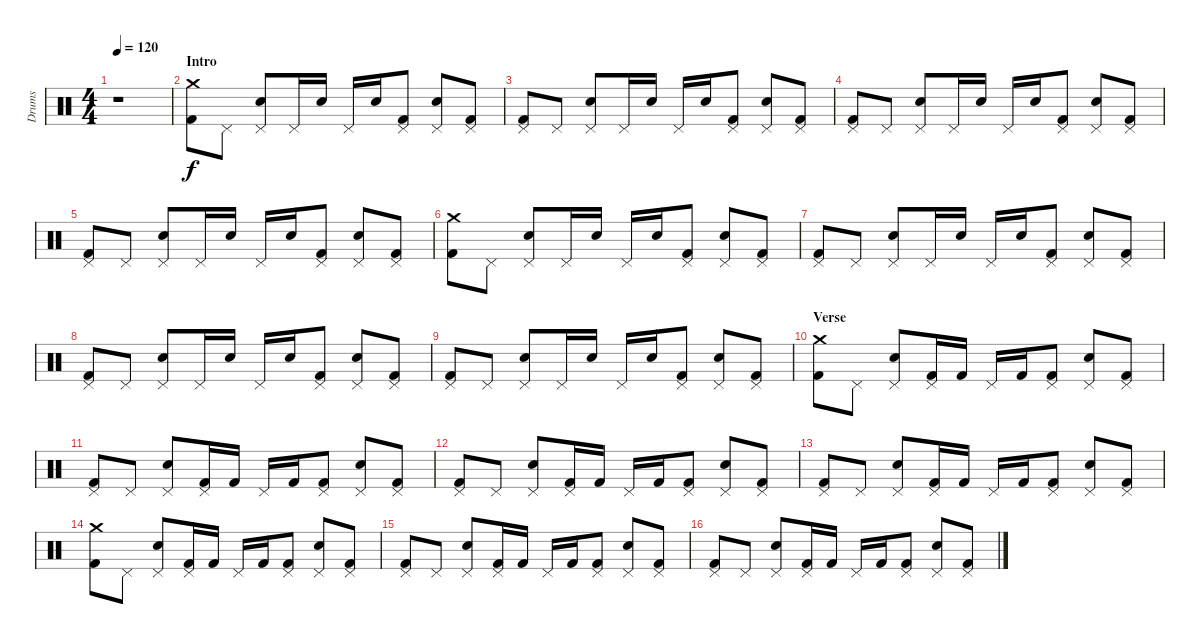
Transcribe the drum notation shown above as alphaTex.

\track ("Drums" "Drums") {instrument percussion}
\staff {score}
\articulation defaults
\ts (4 4)
\tempo 120
\clef neutral
\ks c
r.1{dy f} |
\section ("" "Intro")
("Crash medium (hit)" "Kick (hit) 2").8 "Pedal Hi-Hat (hit)".8 ("Pedal Hi-Hat (hit)" "Electric Snare (hit)").8 "Pedal Hi-Hat (hit)".16 "Electric Snare (hit)".16 "Pedal Hi-Hat (hit)".16 "Electric Snare (hit)".16 ("Pedal Hi-Hat (hit)" "Kick (hit) 2").8 ("Pedal Hi-Hat (hit)" "Electric Snare (hit)").8 ("Pedal Hi-Hat (hit)" "Kick (hit) 2").8 |
("Pedal Hi-Hat (hit)" "Kick (hit) 2").8 "Pedal Hi-Hat (hit)".8 ("Pedal Hi-Hat (hit)" "Electric Snare (hit)").8 "Pedal Hi-Hat (hit)".16 "Electric Snare (hit)".16 "Pedal Hi-Hat (hit)".16 "Electric Snare (hit)".16 ("Pedal Hi-Hat (hit)" "Kick (hit) 2").8 ("Pedal Hi-Hat (hit)" "Electric Snare (hit)").8 ("Pedal Hi-Hat (hit)" "Kick (hit) 2").8 |
("Pedal Hi-Hat (hit)" "Kick (hit) 2").8 "Pedal Hi-Hat (hit)".8 ("Pedal Hi-Hat (hit)" "Electric Snare (hit)").8 "Pedal Hi-Hat (hit)".16 "Electric Snare (hit)".16 "Pedal Hi-Hat (hit)".16 "Electric Snare (hit)".16 ("Pedal Hi-Hat (hit)" "Kick (hit) 2").8 ("Pedal Hi-Hat (hit)" "Electric Snare (hit)").8 ("Pedal Hi-Hat (hit)" "Kick (hit) 2").8 |
("Pedal Hi-Hat (hit)" "Kick (hit) 2").8 "Pedal Hi-Hat (hit)".8 ("Pedal Hi-Hat (hit)" "Electric Snare (hit)").8 "Pedal Hi-Hat (hit)".16 "Electric Snare (hit)".16 "Pedal Hi-Hat (hit)".16 "Electric Snare (hit)".16 ("Pedal Hi-Hat (hit)" "Kick (hit) 2").8 ("Pedal Hi-Hat (hit)" "Electric Snare (hit)").8 ("Pedal Hi-Hat (hit)" "Kick (hit) 2").8 |
("Crash medium (hit)" "Kick (hit) 2").8 "Pedal Hi-Hat (hit)".8 ("Pedal Hi-Hat (hit)" "Electric Snare (hit)").8 "Pedal Hi-Hat (hit)".16 "Electric Snare (hit)".16 "Pedal Hi-Hat (hit)".16 "Electric Snare (hit)".16 ("Pedal Hi-Hat (hit)" "Kick (hit) 2").8 ("Pedal Hi-Hat (hit)" "Electric Snare (hit)").8 ("Pedal Hi-Hat (hit)" "Kick (hit) 2").8 |
("Pedal Hi-Hat (hit)" "Kick (hit) 2").8 "Pedal Hi-Hat (hit)".8 ("Pedal Hi-Hat (hit)" "Electric Snare (hit)").8 "Pedal Hi-Hat (hit)".16 "Electric Snare (hit)".16 "Pedal Hi-Hat (hit)".16 "Electric Snare (hit)".16 ("Pedal Hi-Hat (hit)" "Kick (hit) 2").8 ("Pedal Hi-Hat (hit)" "Electric Snare (hit)").8 ("Pedal Hi-Hat (hit)" "Kick (hit) 2").8 |
("Pedal Hi-Hat (hit)" "Kick (hit) 2").8 "Pedal Hi-Hat (hit)".8 ("Pedal Hi-Hat (hit)" "Electric Snare (hit)").8 "Pedal Hi-Hat (hit)".16 "Electric Snare (hit)".16 "Pedal Hi-Hat (hit)".16 "Electric Snare (hit)".16 ("Pedal Hi-Hat (hit)" "Kick (hit) 2").8 ("Pedal Hi-Hat (hit)" "Electric Snare (hit)").8 ("Pedal Hi-Hat (hit)" "Kick (hit) 2").8 |
("Pedal Hi-Hat (hit)" "Kick (hit) 2").8 "Pedal Hi-Hat (hit)".8 ("Pedal Hi-Hat (hit)" "Electric Snare (hit)").8 "Pedal Hi-Hat (hit)".16 "Electric Snare (hit)".16 "Pedal Hi-Hat (hit)".16 "Electric Snare (hit)".16 ("Pedal Hi-Hat (hit)" "Kick (hit) 2").8 ("Pedal Hi-Hat (hit)" "Electric Snare (hit)").8 ("Pedal Hi-Hat (hit)" "Kick (hit) 2").8 |
\section ("" "Verse")
("Crash medium (hit)" "Kick (hit) 2").8 "Pedal Hi-Hat (hit)".8 ("Pedal Hi-Hat (hit)" "Electric Snare (hit)").8 ("Pedal Hi-Hat (hit)" "Kick (hit) 2").16 "Kick (hit) 2".16 "Pedal Hi-Hat (hit)".16 "Kick (hit) 2".16 ("Pedal Hi-Hat (hit)" "Kick (hit) 2").8 ("Pedal Hi-Hat (hit)" "Electric Snare (hit)").8 ("Pedal Hi-Hat (hit)" "Kick (hit) 2").8 |
("Pedal Hi-Hat (hit)" "Kick (hit) 2").8 "Pedal Hi-Hat (hit)".8 ("Pedal Hi-Hat (hit)" "Electric Snare (hit)").8 ("Pedal Hi-Hat (hit)" "Kick (hit) 2").16 "Kick (hit) 2".16 "Pedal Hi-Hat (hit)".16 "Kick (hit) 2".16 ("Pedal Hi-Hat (hit)" "Kick (hit) 2").8 ("Pedal Hi-Hat (hit)" "Electric Snare (hit)").8 ("Pedal Hi-Hat (hit)" "Kick (hit) 2").8 |
("Pedal Hi-Hat (hit)" "Kick (hit) 2").8 "Pedal Hi-Hat (hit)".8 ("Pedal Hi-Hat (hit)" "Electric Snare (hit)").8 ("Pedal Hi-Hat (hit)" "Kick (hit) 2").16 "Kick (hit) 2".16 "Pedal Hi-Hat (hit)".16 "Kick (hit) 2".16 ("Pedal Hi-Hat (hit)" "Kick (hit) 2").8 ("Pedal Hi-Hat (hit)" "Electric Snare (hit)").8 ("Pedal Hi-Hat (hit)" "Kick (hit) 2").8 |
("Pedal Hi-Hat (hit)" "Kick (hit) 2").8 "Pedal Hi-Hat (hit)".8 ("Pedal Hi-Hat (hit)" "Electric Snare (hit)").8 ("Pedal Hi-Hat (hit)" "Kick (hit) 2").16 "Kick (hit) 2".16 "Pedal Hi-Hat (hit)".16 "Kick (hit) 2".16 ("Pedal Hi-Hat (hit)" "Kick (hit) 2").8 ("Pedal Hi-Hat (hit)" "Electric Snare (hit)").8 ("Pedal Hi-Hat (hit)" "Kick (hit) 2").8 |
("Crash medium (hit)" "Kick (hit) 2").8 "Pedal Hi-Hat (hit)".8 ("Pedal Hi-Hat (hit)" "Electric Snare (hit)").8 ("Pedal Hi-Hat (hit)" "Kick (hit) 2").16 "Kick (hit) 2".16 "Pedal Hi-Hat (hit)".16 "Kick (hit) 2".16 ("Pedal Hi-Hat (hit)" "Kick (hit) 2").8 ("Pedal Hi-Hat (hit)" "Electric Snare (hit)").8 ("Pedal Hi-Hat (hit)" "Kick (hit) 2").8 |
("Pedal Hi-Hat (hit)" "Kick (hit) 2").8 "Pedal Hi-Hat (hit)".8 ("Pedal Hi-Hat (hit)" "Electric Snare (hit)").8 ("Pedal Hi-Hat (hit)" "Kick (hit) 2").16 "Kick (hit) 2".16 "Pedal Hi-Hat (hit)".16 "Kick (hit) 2".16 ("Pedal Hi-Hat (hit)" "Kick (hit) 2").8 ("Pedal Hi-Hat (hit)" "Electric Snare (hit)").8 ("Pedal Hi-Hat (hit)" "Kick (hit) 2").8 |
("Pedal Hi-Hat (hit)" "Kick (hit) 2").8 "Pedal Hi-Hat (hit)".8 ("Pedal Hi-Hat (hit)" "Electric Snare (hit)").8 ("Pedal Hi-Hat (hit)" "Kick (hit) 2").16 "Kick (hit) 2".16 "Pedal Hi-Hat (hit)".16 "Kick (hit) 2".16 ("Pedal Hi-Hat (hit)" "Kick (hit) 2").8 ("Pedal Hi-Hat (hit)" "Electric Snare (hit)").8 ("Pedal Hi-Hat (hit)" "Kick (hit) 2").8
